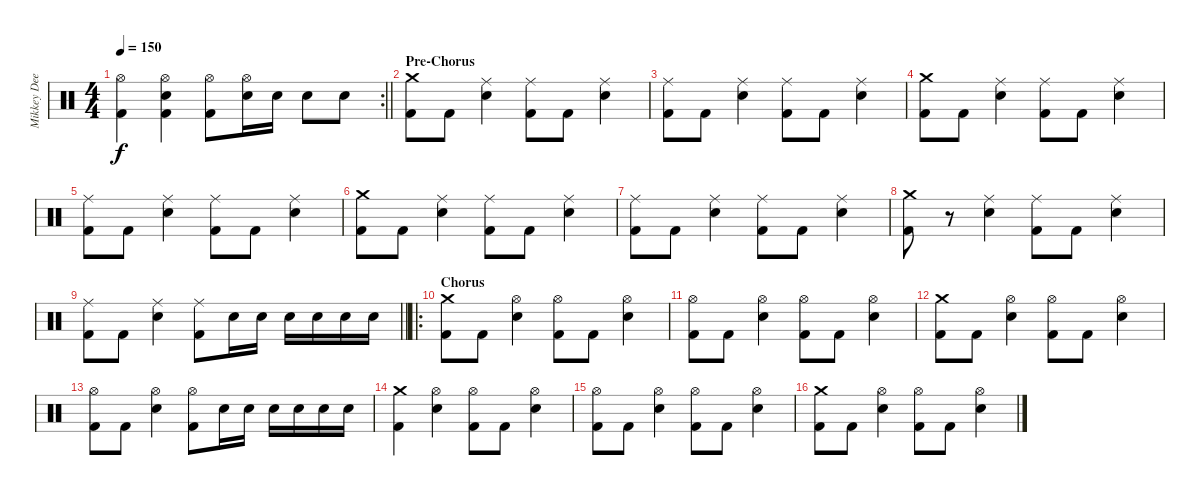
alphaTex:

\track ("Mikkey Dee" "Mikkey Dee") {instrument percussion}
\staff {score}
\articulation defaults
\rc 2
\ts (4 4)
\tempo 150
\clef neutral
\barLineRight lightlight
\ks c
("Hi-Hat (open)" "Kick (hit) 2").4{dy f} ("Hi-Hat (open)" "Electric Snare (hit)" "Kick (hit) 2").4 ("Hi-Hat (open)" "Kick (hit) 2").8 ("Hi-Hat (open)" "Electric Snare (hit)").16 "Electric Snare (hit)".16 "Electric Snare (hit)".8 "Electric Snare (hit)".8 |
\section ("" "Pre-Chorus")
("Crash medium (hit)" "Kick (hit) 2").8 "Kick (hit) 2".8 ("Ride (middle)" "Electric Snare (hit)").4 ("Ride (middle)" "Kick (hit) 2").8 "Kick (hit) 2".8 ("Ride (middle)" "Electric Snare (hit)").4 |
("Ride (middle)" "Kick (hit) 2").8 "Kick (hit) 2".8 ("Ride (middle)" "Electric Snare (hit)").4 ("Ride (middle)" "Kick (hit) 2").8 "Kick (hit) 2".8 ("Ride (middle)" "Electric Snare (hit)").4 |
("Crash medium (hit)" "Kick (hit) 2").8 "Kick (hit) 2".8 ("Ride (middle)" "Electric Snare (hit)").4 ("Ride (middle)" "Kick (hit) 2").8 "Kick (hit) 2".8 ("Ride (middle)" "Electric Snare (hit)").4 |
("Ride (middle)" "Kick (hit) 2").8 "Kick (hit) 2".8 ("Ride (middle)" "Electric Snare (hit)").4 ("Ride (middle)" "Kick (hit) 2").8 "Kick (hit) 2".8 ("Ride (middle)" "Electric Snare (hit)").4 |
("Crash medium (hit)" "Kick (hit) 2").8 "Kick (hit) 2".8 ("Ride (middle)" "Electric Snare (hit)").4 ("Ride (middle)" "Kick (hit) 2").8 "Kick (hit) 2".8 ("Ride (middle)" "Electric Snare (hit)").4 |
("Ride (middle)" "Kick (hit) 2").8 "Kick (hit) 2".8 ("Ride (middle)" "Electric Snare (hit)").4 ("Ride (middle)" "Kick (hit) 2").8 "Kick (hit) 2".8 ("Ride (middle)" "Electric Snare (hit)").4 |
("Crash medium (hit)" "Kick (hit) 2").8 r.8 ("Ride (middle)" "Electric Snare (hit)").4 ("Ride (middle)" "Kick (hit) 2").8 "Kick (hit) 2".8 ("Ride (middle)" "Electric Snare (hit)").4 |
\barLineRight lightlight
("Ride (middle)" "Kick (hit) 2").8 "Kick (hit) 2".8 ("Ride (middle)" "Electric Snare (hit)").4 ("Ride (middle)" "Kick (hit) 2").8 "Electric Snare (hit)".16 "Electric Snare (hit)".16 "Electric Snare (hit)".16 "Electric Snare (hit)".16 "Electric Snare (hit)".16 "Electric Snare (hit)".16 |
\ro
\section ("" "Chorus")
("Crash medium (hit)" "Kick (hit) 2").8 "Kick (hit) 2".8 ("Hi-Hat (open)" "Electric Snare (hit)").4 ("Hi-Hat (open)" "Kick (hit) 2").8 "Kick (hit) 2".8 ("Hi-Hat (open)" "Electric Snare (hit)").4 |
("Hi-Hat (open)" "Kick (hit) 2").8 "Kick (hit) 2".8 ("Hi-Hat (open)" "Electric Snare (hit)").4 ("Hi-Hat (open)" "Kick (hit) 2").8 "Kick (hit) 2".8 ("Hi-Hat (open)" "Electric Snare (hit)").4 |
("Crash medium (hit)" "Kick (hit) 2").8 "Kick (hit) 2".8 ("Hi-Hat (open)" "Electric Snare (hit)").4 ("Hi-Hat (open)" "Kick (hit) 2").8 "Kick (hit) 2".8 ("Hi-Hat (open)" "Electric Snare (hit)").4 |
("Hi-Hat (open)" "Kick (hit) 2").8 "Kick (hit) 2".8 ("Hi-Hat (open)" "Electric Snare (hit)").4 ("Hi-Hat (open)" "Kick (hit) 2").8 "Electric Snare (hit)".16 "Electric Snare (hit)".16 "Electric Snare (hit)".16 "Electric Snare (hit)".16 "Electric Snare (hit)".16 "Electric Snare (hit)".16 |
("Crash medium (hit)" "Kick (hit) 2").4 ("Hi-Hat (open)" "Electric Snare (hit)").4 ("Hi-Hat (open)" "Kick (hit) 2").8 "Kick (hit) 2".8 ("Hi-Hat (open)" "Electric Snare (hit)").4 |
("Hi-Hat (open)" "Kick (hit) 2").8 "Kick (hit) 2".8 ("Hi-Hat (open)" "Electric Snare (hit)").4 ("Hi-Hat (open)" "Kick (hit) 2").8 "Kick (hit) 2".8 ("Hi-Hat (open)" "Electric Snare (hit)").4 |
("Crash medium (hit)" "Kick (hit) 2").8 "Kick (hit) 2".8 ("Hi-Hat (open)" "Electric Snare (hit)").4 ("Hi-Hat (open)" "Kick (hit) 2").8 "Kick (hit) 2".8 ("Hi-Hat (open)" "Electric Snare (hit)").4
